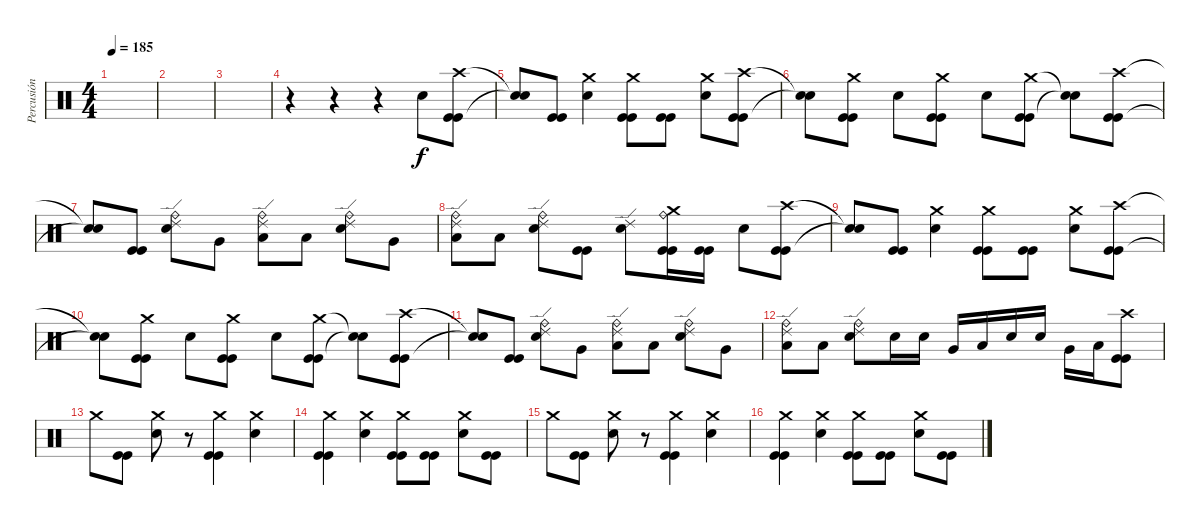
\track ("Percusión" "Percusión") {instrument percussion}
\staff {score}
\articulation defaults
\ts (4 4)
\tempo 185
\clef neutral
\ks c
|
|
|
r.4 r.4 r.4 "Electric Snare (hit)".8 ("Crash high (hit)" "Kick (hit)" "Kick (hit)").8 |
("Snare (hit)"{t} "Snare (hit)"{t}).8 ("Kick (hit)" "Kick (hit)").8 ("Crash medium (hit)" "Electric Snare (hit)").4 ("Crash medium (hit)" "Kick (hit)" "Kick (hit)").8 ("Kick (hit)" "Kick (hit)").8 ("Crash medium (hit)" "Electric Snare (hit)").8 ("Crash high (hit)" "Kick (hit)" "Kick (hit)").8 |
("Snare (hit)"{t} "Snare (hit)"{t}).8 ("Crash medium (hit)" "Kick (hit)" "Kick (hit)").8 "Electric Snare (hit)".8 ("Crash medium (hit)" "Kick (hit)" "Kick (hit)").8 "Electric Snare (hit)".8 ("Crash medium (hit)" "Kick (hit)" "Kick (hit)").8 ("Snare (hit)"{t} "Snare (hit)"{t}).8 ("Crash high (hit)" "Kick (hit)" "Kick (hit)").8 |
("Snare (hit)"{t} "Snare (hit)"{t}).8 ("Kick (hit)" "Kick (hit)").8 ("Ride (edge) 2" "Ride (bell)" "Electric Snare (hit)").8 "Very Low Tom (hit)".8 ("Ride (edge) 2" "Ride (bell)" "Low Floor Tom (hit)").8 "Low Floor Tom (hit)".8 ("Ride (edge) 2" "Ride (bell)" "Electric Snare (hit)").8 "Very Low Tom (hit)".8 |
("Ride (edge) 2" "Ride (bell)" "Low Floor Tom (hit)").8 "Low Floor Tom (hit)".8 ("Ride (edge) 2" "Ride (bell)" "Electric Snare (hit)").8 ("Kick (hit)" "Kick (hit)").8 ("Ride (edge) 2" "Electric Snare (hit)").8 ("Crash medium (hit)" "Ride (bell)" "Kick (hit)" "Kick (hit)").16 ("Kick (hit)" "Kick (hit)").16 "Electric Snare (hit)".8 ("Crash high (hit)" "Kick (hit)" "Kick (hit)").8 |
("Snare (hit)"{t} "Snare (hit)"{t}).8 ("Kick (hit)" "Kick (hit)").8 ("Crash medium (hit)" "Electric Snare (hit)").4 ("Crash medium (hit)" "Kick (hit)" "Kick (hit)").8 ("Kick (hit)" "Kick (hit)").8 ("Crash medium (hit)" "Electric Snare (hit)").8 ("Crash high (hit)" "Kick (hit)" "Kick (hit)").8 |
("Snare (hit)"{t} "Snare (hit)"{t}).8 ("Crash medium (hit)" "Kick (hit)" "Kick (hit)").8 "Electric Snare (hit)".8 ("Crash medium (hit)" "Kick (hit)" "Kick (hit)").8 "Electric Snare (hit)".8 ("Crash medium (hit)" "Kick (hit)" "Kick (hit)").8 ("Snare (hit)"{t} "Snare (hit)"{t}).8 ("Crash high (hit)" "Kick (hit)" "Kick (hit)").8 |
("Snare (hit)"{t} "Snare (hit)"{t}).8 ("Kick (hit)" "Kick (hit)").8 ("Ride (edge) 2" "Ride (bell)" "Electric Snare (hit)").8 "Very Low Tom (hit)".8 ("Ride (edge) 2" "Ride (bell)" "Low Floor Tom (hit)").8 "Low Floor Tom (hit)".8 ("Ride (edge) 2" "Ride (bell)" "Electric Snare (hit)").8 "Very Low Tom (hit)".8 |
("Ride (edge) 2" "Ride (bell)" "Low Floor Tom (hit)").8 "Low Floor Tom (hit)".8 ("Ride (edge) 2" "Ride (bell)" "Electric Snare (hit)").8 "Electric Snare (hit)".16 "Electric Snare (hit)".16 "Very Low Tom (hit)".16 "Low Floor Tom (hit)".16 "Electric Snare (hit)".16 "Electric Snare (hit)".16 "Very Low Tom (hit)".16 "Low Floor Tom (hit)".16 ("Crash high (hit)" "Kick (hit)" "Kick (hit)").8 |
"Crash medium (hit)".8 ("Kick (hit)" "Kick (hit)").8 ("Crash medium (hit)" "Electric Snare (hit)").8 r.8 ("Crash medium (hit)" "Kick (hit)" "Kick (hit)").4 ("Crash medium (hit)" "Electric Snare (hit)").4 |
("Crash medium (hit)" "Kick (hit)" "Kick (hit)").4 ("Crash medium (hit)" "Electric Snare (hit)").4 ("Crash medium (hit)" "Kick (hit)" "Kick (hit)").8 ("Kick (hit)" "Kick (hit)").8 ("Crash medium (hit)" "Electric Snare (hit)").8 ("Kick (hit)" "Kick (hit)").8 |
"Crash medium (hit)".8 ("Kick (hit)" "Kick (hit)").8 ("Crash medium (hit)" "Electric Snare (hit)").8 r.8 ("Crash medium (hit)" "Kick (hit)" "Kick (hit)").4 ("Crash medium (hit)" "Electric Snare (hit)").4 |
("Crash medium (hit)" "Kick (hit)" "Kick (hit)").4 ("Crash medium (hit)" "Electric Snare (hit)").4 ("Crash medium (hit)" "Kick (hit)" "Kick (hit)").8 ("Kick (hit)" "Kick (hit)").8 ("Crash medium (hit)" "Electric Snare (hit)").8 ("Kick (hit)" "Kick (hit)").8
